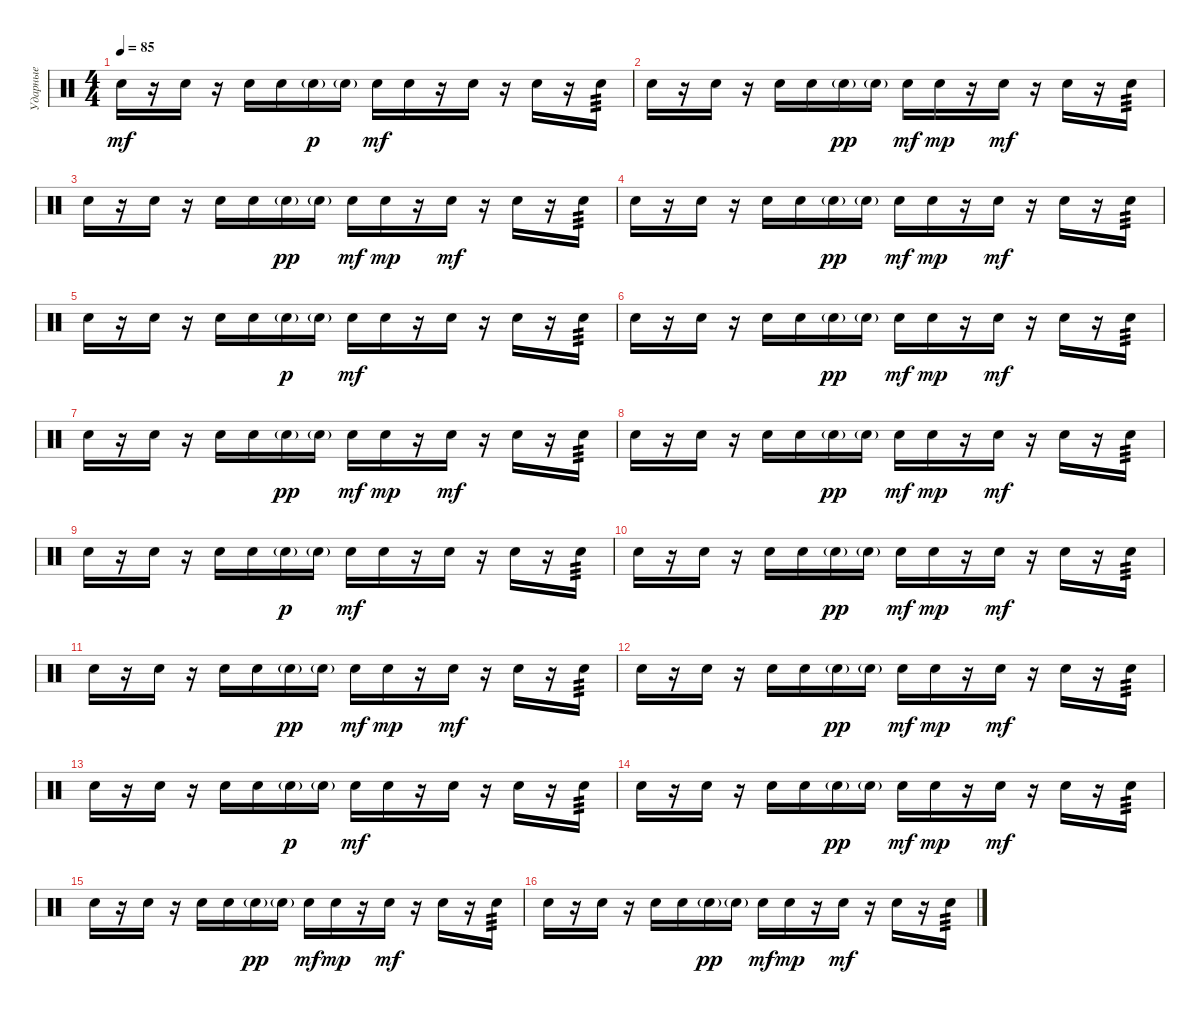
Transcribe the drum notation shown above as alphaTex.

\track ("Ударные" "Ударные") {instrument percussion}
\staff {score}
\articulation defaults
\ts (4 4)
\tempo 85
\clef neutral
\ks c "Hand Clap (hit)".16{dy mf}
r.16 "Hand Clap (hit)".16 r.16 "Hand Clap (hit)".16 "Hand Clap (hit)".16 "Hand Clap (hit)"{g}.16{dy p} "Hand Clap (hit)"{g}.16 "Hand Clap (hit)".16{dy mf} "Hand Clap (hit)".16 r.16 "Hand Clap (hit)".16 r.16 "Hand Clap (hit)".16 r.16 "Hand Clap (hit)".16{tp 3} |
"Hand Clap (hit)".16 r.16 "Hand Clap (hit)".16 r.16 "Hand Clap (hit)".16 "Hand Clap (hit)".16 "Hand Clap (hit)"{g}.16{dy pp} "Hand Clap (hit)"{g}.16 "Hand Clap (hit)".16{dy mf} "Hand Clap (hit)".16{dy mp} r.16 "Hand Clap (hit)".16{dy mf} r.16 "Hand Clap (hit)".16 r.16 "Hand Clap (hit)".16{tp 3} |
"Hand Clap (hit)".16 r.16 "Hand Clap (hit)".16 r.16 "Hand Clap (hit)".16 "Hand Clap (hit)".16 "Hand Clap (hit)"{g}.16{dy pp} "Hand Clap (hit)"{g}.16 "Hand Clap (hit)".16{dy mf} "Hand Clap (hit)".16{dy mp} r.16 "Hand Clap (hit)".16{dy mf} r.16 "Hand Clap (hit)".16 r.16 "Hand Clap (hit)".16{tp 3} |
"Hand Clap (hit)".16 r.16 "Hand Clap (hit)".16 r.16 "Hand Clap (hit)".16 "Hand Clap (hit)".16 "Hand Clap (hit)"{g}.16{dy pp} "Hand Clap (hit)"{g}.16 "Hand Clap (hit)".16{dy mf} "Hand Clap (hit)".16{dy mp} r.16 "Hand Clap (hit)".16{dy mf} r.16 "Hand Clap (hit)".16 r.16 "Hand Clap (hit)".16{tp 3} |
"Hand Clap (hit)".16 r.16 "Hand Clap (hit)".16 r.16 "Hand Clap (hit)".16 "Hand Clap (hit)".16 "Hand Clap (hit)"{g}.16{dy p} "Hand Clap (hit)"{g}.16 "Hand Clap (hit)".16{dy mf} "Hand Clap (hit)".16 r.16 "Hand Clap (hit)".16 r.16 "Hand Clap (hit)".16 r.16 "Hand Clap (hit)".16{tp 3} |
"Hand Clap (hit)".16 r.16 "Hand Clap (hit)".16 r.16 "Hand Clap (hit)".16 "Hand Clap (hit)".16 "Hand Clap (hit)"{g}.16{dy pp} "Hand Clap (hit)"{g}.16 "Hand Clap (hit)".16{dy mf} "Hand Clap (hit)".16{dy mp} r.16 "Hand Clap (hit)".16{dy mf} r.16 "Hand Clap (hit)".16 r.16 "Hand Clap (hit)".16{tp 3} |
"Hand Clap (hit)".16 r.16 "Hand Clap (hit)".16 r.16 "Hand Clap (hit)".16 "Hand Clap (hit)".16 "Hand Clap (hit)"{g}.16{dy pp} "Hand Clap (hit)"{g}.16 "Hand Clap (hit)".16{dy mf} "Hand Clap (hit)".16{dy mp} r.16 "Hand Clap (hit)".16{dy mf} r.16 "Hand Clap (hit)".16 r.16 "Hand Clap (hit)".16{tp 3} |
"Hand Clap (hit)".16 r.16 "Hand Clap (hit)".16 r.16 "Hand Clap (hit)".16 "Hand Clap (hit)".16 "Hand Clap (hit)"{g}.16{dy pp} "Hand Clap (hit)"{g}.16 "Hand Clap (hit)".16{dy mf} "Hand Clap (hit)".16{dy mp} r.16 "Hand Clap (hit)".16{dy mf} r.16 "Hand Clap (hit)".16 r.16 "Hand Clap (hit)".16{tp 3} |
"Hand Clap (hit)".16 r.16 "Hand Clap (hit)".16 r.16 "Hand Clap (hit)".16 "Hand Clap (hit)".16 "Hand Clap (hit)"{g}.16{dy p} "Hand Clap (hit)"{g}.16 "Hand Clap (hit)".16{dy mf} "Hand Clap (hit)".16 r.16 "Hand Clap (hit)".16 r.16 "Hand Clap (hit)".16 r.16 "Hand Clap (hit)".16{tp 3} |
"Hand Clap (hit)".16 r.16 "Hand Clap (hit)".16 r.16 "Hand Clap (hit)".16 "Hand Clap (hit)".16 "Hand Clap (hit)"{g}.16{dy pp} "Hand Clap (hit)"{g}.16 "Hand Clap (hit)".16{dy mf} "Hand Clap (hit)".16{dy mp} r.16 "Hand Clap (hit)".16{dy mf} r.16 "Hand Clap (hit)".16 r.16 "Hand Clap (hit)".16{tp 3} |
"Hand Clap (hit)".16 r.16 "Hand Clap (hit)".16 r.16 "Hand Clap (hit)".16 "Hand Clap (hit)".16 "Hand Clap (hit)"{g}.16{dy pp} "Hand Clap (hit)"{g}.16 "Hand Clap (hit)".16{dy mf} "Hand Clap (hit)".16{dy mp} r.16 "Hand Clap (hit)".16{dy mf} r.16 "Hand Clap (hit)".16 r.16 "Hand Clap (hit)".16{tp 3} |
"Hand Clap (hit)".16 r.16 "Hand Clap (hit)".16 r.16 "Hand Clap (hit)".16 "Hand Clap (hit)".16 "Hand Clap (hit)"{g}.16{dy pp} "Hand Clap (hit)"{g}.16 "Hand Clap (hit)".16{dy mf} "Hand Clap (hit)".16{dy mp} r.16 "Hand Clap (hit)".16{dy mf} r.16 "Hand Clap (hit)".16 r.16 "Hand Clap (hit)".16{tp 3} |
"Hand Clap (hit)".16 r.16 "Hand Clap (hit)".16 r.16 "Hand Clap (hit)".16 "Hand Clap (hit)".16 "Hand Clap (hit)"{g}.16{dy p} "Hand Clap (hit)"{g}.16 "Hand Clap (hit)".16{dy mf} "Hand Clap (hit)".16 r.16 "Hand Clap (hit)".16 r.16 "Hand Clap (hit)".16 r.16 "Hand Clap (hit)".16{tp 3} |
"Hand Clap (hit)".16 r.16 "Hand Clap (hit)".16 r.16 "Hand Clap (hit)".16 "Hand Clap (hit)".16 "Hand Clap (hit)"{g}.16{dy pp} "Hand Clap (hit)"{g}.16 "Hand Clap (hit)".16{dy mf} "Hand Clap (hit)".16{dy mp} r.16 "Hand Clap (hit)".16{dy mf} r.16 "Hand Clap (hit)".16 r.16 "Hand Clap (hit)".16{tp 3} |
"Hand Clap (hit)".16 r.16 "Hand Clap (hit)".16 r.16 "Hand Clap (hit)".16 "Hand Clap (hit)".16 "Hand Clap (hit)"{g}.16{dy pp} "Hand Clap (hit)"{g}.16 "Hand Clap (hit)".16{dy mf} "Hand Clap (hit)".16{dy mp} r.16 "Hand Clap (hit)".16{dy mf} r.16 "Hand Clap (hit)".16 r.16 "Hand Clap (hit)".16{tp 3} |
"Hand Clap (hit)".16 r.16 "Hand Clap (hit)".16 r.16 "Hand Clap (hit)".16 "Hand Clap (hit)".16 "Hand Clap (hit)"{g}.16{dy pp} "Hand Clap (hit)"{g}.16 "Hand Clap (hit)".16{dy mf} "Hand Clap (hit)".16{dy mp} r.16 "Hand Clap (hit)".16{dy mf} r.16 "Hand Clap (hit)".16 r.16 "Hand Clap (hit)".16{tp 3}
